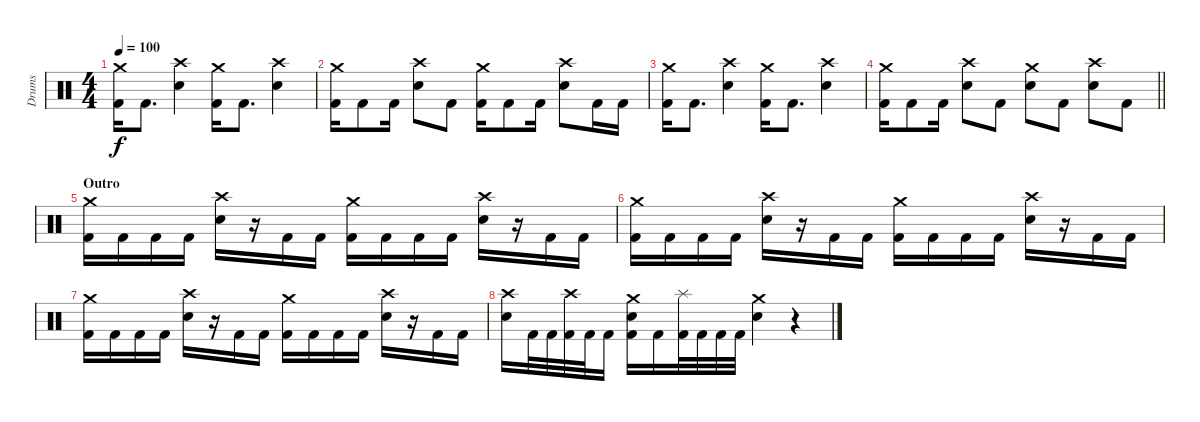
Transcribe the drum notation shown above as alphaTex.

\track ("Drums" "Drums") {instrument percussion}
\staff {score}
\articulation defaults
\ts (4 4)
\tempo 100
\clef neutral
\ks c
("Crash medium (hit)" "Kick (hit) 2").16{dy f} "Kick (hit) 2".8{d} ("Crash high (hit)" "Electric Snare (hit)").4 ("Crash medium (hit)" "Kick (hit) 2").16 "Kick (hit) 2".8{d} ("Crash high (hit)" "Electric Snare (hit)").4 |
("Crash medium (hit)" "Kick (hit) 2").16 "Kick (hit) 2".8 "Kick (hit) 2".16 ("Crash high (hit)" "Electric Snare (hit)").8 "Kick (hit) 2".8 ("Crash medium (hit)" "Kick (hit) 2").16 "Kick (hit) 2".8 "Kick (hit) 2".16 ("Crash high (hit)" "Electric Snare (hit)").8 "Kick (hit) 2".16 "Kick (hit) 2".16 |
("Crash medium (hit)" "Kick (hit) 2").16 "Kick (hit) 2".8{d} ("Crash high (hit)" "Electric Snare (hit)").4 ("Crash medium (hit)" "Kick (hit) 2").16 "Kick (hit) 2".8{d} ("Crash high (hit)" "Electric Snare (hit)").4 |
\barLineRight lightlight
("Crash medium (hit)" "Kick (hit) 2").16 "Kick (hit) 2".8 "Kick (hit) 2".16 ("Crash high (hit)" "Electric Snare (hit)").8 "Kick (hit) 2".8 ("Crash medium (hit)" "Electric Snare (hit)").8 "Kick (hit) 2".8 ("Crash high (hit)" "Electric Snare (hit)").8 "Kick (hit) 2".8 |
\section ("" "Outro")
("Crash medium (hit)" "Kick (hit) 2").16 "Kick (hit) 2".16 "Kick (hit) 2".16 "Kick (hit) 2".16 ("Crash high (hit)" "Snare (hit) 2").16 r.16 "Kick (hit) 2".16 "Kick (hit) 2".16 ("Crash medium (hit)" "Kick (hit) 2").16 "Kick (hit) 2".16 "Kick (hit) 2".16 "Kick (hit) 2".16 ("Crash high (hit)" "Snare (hit) 2").16 r.16 "Kick (hit) 2".16 "Kick (hit) 2".16 |
("Crash medium (hit)" "Kick (hit) 2").16 "Kick (hit) 2".16 "Kick (hit) 2".16 "Kick (hit) 2".16 ("Crash high (hit)" "Snare (hit) 2").16 r.16 "Kick (hit) 2".16 "Kick (hit) 2".16 ("Crash medium (hit)" "Kick (hit) 2").16 "Kick (hit) 2".16 "Kick (hit) 2".16 "Kick (hit) 2".16 ("Crash high (hit)" "Snare (hit) 2").16 r.16 "Kick (hit) 2".16 "Kick (hit) 2".16 |
("Crash medium (hit)" "Kick (hit) 2").16 "Kick (hit) 2".16 "Kick (hit) 2".16 "Kick (hit) 2".16 ("Crash high (hit)" "Snare (hit) 2").16 r.16 "Kick (hit) 2".16 "Kick (hit) 2".16 ("Crash medium (hit)" "Kick (hit) 2").16 "Kick (hit) 2".16 "Kick (hit) 2".16 "Kick (hit) 2".16 ("Crash high (hit)" "Snare (hit) 2").16 r.16 "Kick (hit) 2".16 "Kick (hit) 2".16 |
("Crash high (hit)" "Snare (hit) 2").16 "Kick (hit) 2".32 "Kick (hit) 2".32 ("Crash high (hit)" "Kick (hit) 2").32 "Kick (hit) 2".32 "Kick (hit) 2".16 ("Crash medium (hit)" "Snare (hit) 2" "Kick (hit) 2").16 "Kick (hit) 2".16 ("Splash (hit)" "Kick (hit) 2").32 "Kick (hit) 2".32 "Kick (hit) 2".32 "Kick (hit) 2".32 ("Crash medium (hit)" "Snare (hit) 2").4 r.4
